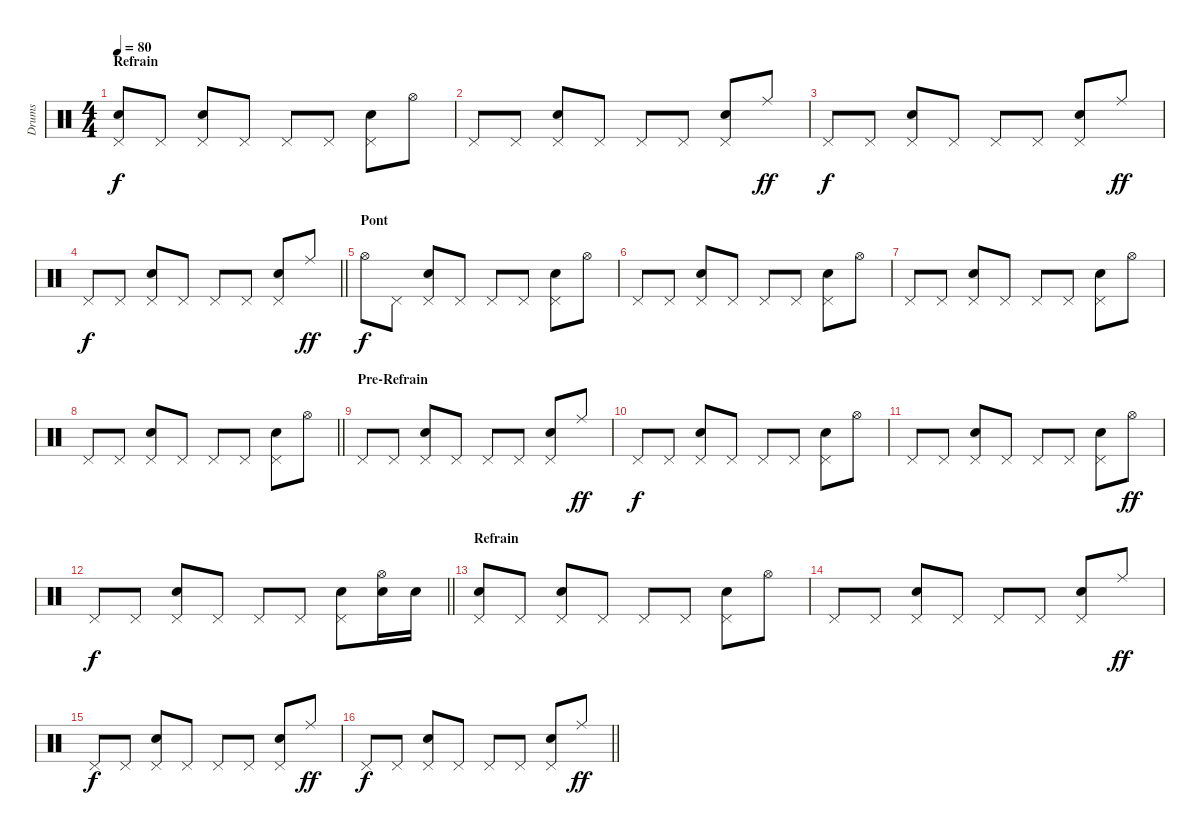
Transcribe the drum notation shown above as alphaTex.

\track ("Drums" "Drums") {instrument percussion}
\staff {score}
\articulation defaults
\ts (4 4)
\section ("" "Refrain")
\tempo 80
\clef neutral
\ks c
("Pedal Hi-Hat (hit)" "Electric Snare (hit)").8{dy f} "Pedal Hi-Hat (hit)".8 ("Pedal Hi-Hat (hit)" "Snare (hit) 2").8 "Pedal Hi-Hat (hit)".8 "Pedal Hi-Hat (hit)".8 "Pedal Hi-Hat (hit)".8 ("Pedal Hi-Hat (hit)" "Snare (hit) 2").8 "Hi-Hat (open)".8 |
"Pedal Hi-Hat (hit)".8 "Pedal Hi-Hat (hit)".8 ("Pedal Hi-Hat (hit)" "Snare (hit) 2").8 "Pedal Hi-Hat (hit)".8 "Pedal Hi-Hat (hit)".8 "Pedal Hi-Hat (hit)".8 ("Pedal Hi-Hat (hit)" "Snare (hit) 2").8 "Ride (middle)".8{dy ff} |
"Pedal Hi-Hat (hit)".8{dy f} "Pedal Hi-Hat (hit)".8 ("Pedal Hi-Hat (hit)" "Snare (hit) 2").8 "Pedal Hi-Hat (hit)".8 "Pedal Hi-Hat (hit)".8 "Pedal Hi-Hat (hit)".8 ("Pedal Hi-Hat (hit)" "Snare (hit) 2").8 "Ride (middle)".8{dy ff} |
\barLineRight lightlight "Pedal Hi-Hat (hit)".8{dy f} "Pedal Hi-Hat (hit)".8
("Pedal Hi-Hat (hit)" "Snare (hit) 2").8 "Pedal Hi-Hat (hit)".8 "Pedal Hi-Hat (hit)".8 "Pedal Hi-Hat (hit)".8 ("Pedal Hi-Hat (hit)" "Snare (hit) 2").8 "Ride (middle)".8{dy ff} |
\section ("" "Pont")
"Hi-Hat (open)".8{dy f} "Pedal Hi-Hat (hit)".8 ("Pedal Hi-Hat (hit)" "Snare (hit) 2").8 "Pedal Hi-Hat (hit)".8 "Pedal Hi-Hat (hit)".8 "Pedal Hi-Hat (hit)".8 ("Pedal Hi-Hat (hit)" "Snare (hit) 2").8 "Hi-Hat (open)".8 |
"Pedal Hi-Hat (hit)".8 "Pedal Hi-Hat (hit)".8 ("Pedal Hi-Hat (hit)" "Snare (hit) 2").8 "Pedal Hi-Hat (hit)".8 "Pedal Hi-Hat (hit)".8 "Pedal Hi-Hat (hit)".8 ("Pedal Hi-Hat (hit)" "Snare (hit) 2").8 "Hi-Hat (open)".8 |
"Pedal Hi-Hat (hit)".8 "Pedal Hi-Hat (hit)".8 ("Pedal Hi-Hat (hit)" "Snare (hit) 2").8 "Pedal Hi-Hat (hit)".8 "Pedal Hi-Hat (hit)".8 "Pedal Hi-Hat (hit)".8 ("Pedal Hi-Hat (hit)" "Snare (hit) 2").8 "Hi-Hat (open)".8 |
\barLineRight lightlight "Pedal Hi-Hat (hit)".8 "Pedal Hi-Hat (hit)".8
("Pedal Hi-Hat (hit)" "Snare (hit) 2").8 "Pedal Hi-Hat (hit)".8 "Pedal Hi-Hat (hit)".8 "Pedal Hi-Hat (hit)".8 ("Pedal Hi-Hat (hit)" "Snare (hit) 2").8 "Hi-Hat (open)".8 |
\section ("" "Pre-Refrain")
"Pedal Hi-Hat (hit)".8 "Pedal Hi-Hat (hit)".8 ("Pedal Hi-Hat (hit)" "Snare (hit) 2").8 "Pedal Hi-Hat (hit)".8 "Pedal Hi-Hat (hit)".8 "Pedal Hi-Hat (hit)".8 ("Pedal Hi-Hat (hit)" "Snare (hit) 2").8 "Ride (middle)".8{dy ff} |
"Pedal Hi-Hat (hit)".8{dy f} "Pedal Hi-Hat (hit)".8 ("Pedal Hi-Hat (hit)" "Snare (hit) 2").8 "Pedal Hi-Hat (hit)".8 "Pedal Hi-Hat (hit)".8 "Pedal Hi-Hat (hit)".8 ("Pedal Hi-Hat (hit)" "Snare (hit) 2").8 "Hi-Hat (open)".8 |
"Pedal Hi-Hat (hit)".8 "Pedal Hi-Hat (hit)".8 ("Pedal Hi-Hat (hit)" "Snare (hit) 2").8 "Pedal Hi-Hat (hit)".8 "Pedal Hi-Hat (hit)".8 "Pedal Hi-Hat (hit)".8 ("Pedal Hi-Hat (hit)" "Snare (hit) 2").8 "Hi-Hat (open)".8{dy ff} |
\barLineRight lightlight "Pedal Hi-Hat (hit)".8{dy f} "Pedal Hi-Hat (hit)".8
("Pedal Hi-Hat (hit)" "Snare (hit) 2").8 "Pedal Hi-Hat (hit)".8 "Pedal Hi-Hat (hit)".8 "Pedal Hi-Hat (hit)".8 ("Pedal Hi-Hat (hit)" "Snare (hit) 2").8 ("Hi-Hat (open)" "Electric Snare (hit)").16 "Electric Snare (hit)".16 |
\section ("" "Refrain")
("Pedal Hi-Hat (hit)" "Electric Snare (hit)").8 "Pedal Hi-Hat (hit)".8 ("Pedal Hi-Hat (hit)" "Snare (hit) 2").8 "Pedal Hi-Hat (hit)".8 "Pedal Hi-Hat (hit)".8 "Pedal Hi-Hat (hit)".8 ("Pedal Hi-Hat (hit)" "Snare (hit) 2").8 "Hi-Hat (open)".8 |
"Pedal Hi-Hat (hit)".8 "Pedal Hi-Hat (hit)".8 ("Pedal Hi-Hat (hit)" "Snare (hit) 2").8 "Pedal Hi-Hat (hit)".8 "Pedal Hi-Hat (hit)".8 "Pedal Hi-Hat (hit)".8 ("Pedal Hi-Hat (hit)" "Snare (hit) 2").8 "Ride (middle)".8{dy ff} |
"Pedal Hi-Hat (hit)".8{dy f} "Pedal Hi-Hat (hit)".8 ("Pedal Hi-Hat (hit)" "Snare (hit) 2").8 "Pedal Hi-Hat (hit)".8 "Pedal Hi-Hat (hit)".8 "Pedal Hi-Hat (hit)".8 ("Pedal Hi-Hat (hit)" "Snare (hit) 2").8 "Ride (middle)".8{dy ff} |
\barLineRight lightlight "Pedal Hi-Hat (hit)".8{dy f} "Pedal Hi-Hat (hit)".8
("Pedal Hi-Hat (hit)" "Snare (hit) 2").8 "Pedal Hi-Hat (hit)".8 "Pedal Hi-Hat (hit)".8 "Pedal Hi-Hat (hit)".8 ("Pedal Hi-Hat (hit)" "Snare (hit) 2").8 "Ride (middle)".8{dy ff}
